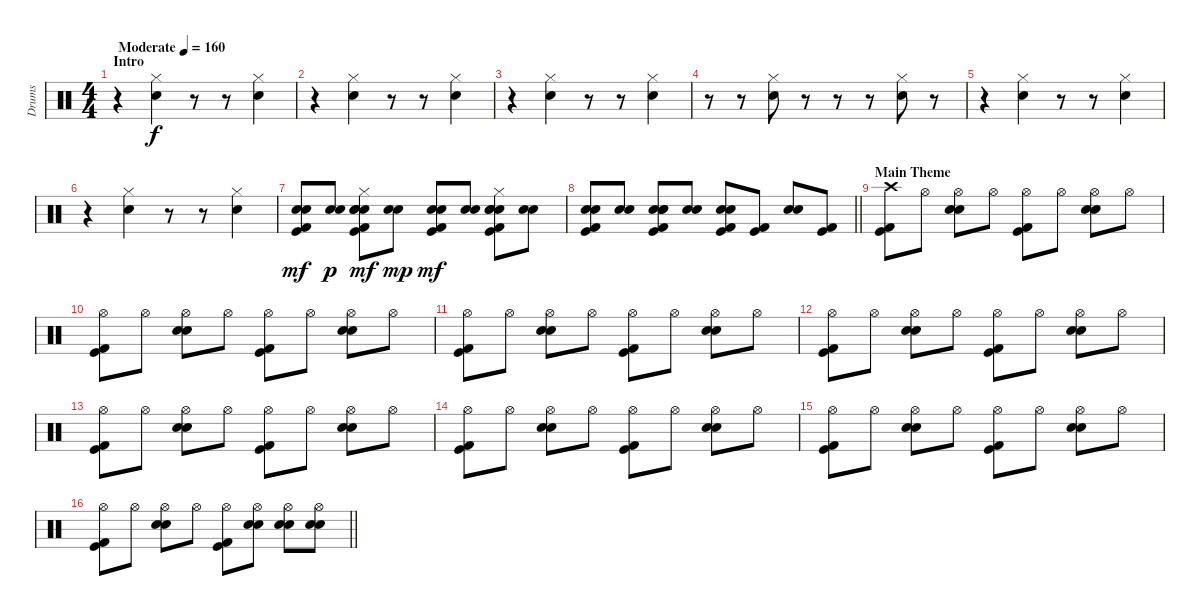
\track ("Drums" "Drums") {instrument percussion}
\staff {score}
\articulation defaults
\ts (4 4)
\section ("" "Intro")
\tempo (160 "Moderate")
\clef neutral
\ks c
r.4{dy f} ("Hi-Hat (closed)" "Hand Clap (hit)").4 r.8 r.8 ("Hi-Hat (closed)" "Hand Clap (hit)").4 |
r.4 ("Hi-Hat (closed)" "Hand Clap (hit)").4 r.8 r.8 ("Hi-Hat (closed)" "Hand Clap (hit)").4 |
r.4 ("Hi-Hat (closed)" "Hand Clap (hit)").4 r.8 r.8 ("Hi-Hat (closed)" "Hand Clap (hit)").4 |
r.8 r.8 ("Hi-Hat (closed)" "Hand Clap (hit)").8 r.8 r.8 r.8 ("Hi-Hat (closed)" "Hand Clap (hit)").8 r.8 |
r.4 ("Hi-Hat (closed)" "Hand Clap (hit)").4 r.8 r.8 ("Hi-Hat (closed)" "Hand Clap (hit)").4 |
r.4 ("Hi-Hat (closed)" "Hand Clap (hit)").4 r.8 r.8 ("Hi-Hat (closed)" "Hand Clap (hit)").4 |
("Kick (hit) 2" "Snare (hit) 2" "Electric Snare (hit)" "Kick (hit)").8{dy mf} ("Snare (hit) 2" "Electric Snare (hit)").8{dy p} ("Kick (hit) 2" "Hand Clap (hit)" "Hi-Hat (closed)" "Snare (hit) 2" "Electric Snare (hit)" "Kick (hit)").8{dy mf} ("Snare (hit) 2" "Electric Snare (hit)").8{dy mp} ("Kick (hit) 2" "Snare (hit) 2" "Electric Snare (hit)" "Kick (hit)").8{dy mf} ("Snare (hit) 2" "Electric Snare (hit)").8 ("Kick (hit) 2" "Hand Clap (hit)" "Hi-Hat (closed)" "Snare (hit) 2" "Electric Snare (hit)" "Kick (hit)").8 ("Snare (hit) 2" "Electric Snare (hit)").8 |
\barLineRight lightlight
("Kick (hit) 2" "Snare (hit) 2" "Electric Snare (hit)" "Kick (hit)").8 ("Snare (hit) 2" "Electric Snare (hit)").8 ("Kick (hit) 2" "Hand Clap (hit)" "Snare (hit) 2" "Electric Snare (hit)" "Kick (hit)").8 ("Snare (hit) 2" "Electric Snare (hit)").8 ("Kick (hit) 2" "Snare (hit) 2" "Electric Snare (hit)" "Kick (hit)").8 ("Kick (hit) 2" "Kick (hit)").8 ("Snare (hit) 2" "Electric Snare (hit)").8 ("Kick (hit) 2" "Kick (hit)").8 |
\section ("" "Main Theme")
("Crash high (hit)" "Kick (hit) 2" "Kick (hit)").8 "Hi-Hat (open)".8 ("Hi-Hat (open)" "Snare (hit) 2" "Electric Snare (hit)").8 "Hi-Hat (open)".8 ("Hi-Hat (open)" "Kick (hit) 2" "Kick (hit)").8 "Hi-Hat (open)".8 ("Hi-Hat (open)" "Snare (hit) 2" "Electric Snare (hit)").8 "Hi-Hat (open)".8 |
("Hi-Hat (open)" "Kick (hit) 2" "Kick (hit)").8 "Hi-Hat (open)".8 ("Hi-Hat (open)" "Snare (hit) 2" "Electric Snare (hit)").8 "Hi-Hat (open)".8 ("Hi-Hat (open)" "Kick (hit) 2" "Kick (hit)").8 "Hi-Hat (open)".8 ("Hi-Hat (open)" "Snare (hit) 2" "Electric Snare (hit)").8 "Hi-Hat (open)".8 |
("Hi-Hat (open)" "Kick (hit) 2" "Kick (hit)").8 "Hi-Hat (open)".8 ("Hi-Hat (open)" "Snare (hit) 2" "Electric Snare (hit)").8 "Hi-Hat (open)".8 ("Hi-Hat (open)" "Kick (hit) 2" "Kick (hit)").8 "Hi-Hat (open)".8 ("Hi-Hat (open)" "Snare (hit) 2" "Electric Snare (hit)").8 "Hi-Hat (open)".8 |
("Hi-Hat (open)" "Kick (hit) 2" "Kick (hit)").8 "Hi-Hat (open)".8 ("Hi-Hat (open)" "Snare (hit) 2" "Electric Snare (hit)").8 "Hi-Hat (open)".8 ("Hi-Hat (open)" "Kick (hit) 2" "Kick (hit)").8 "Hi-Hat (open)".8 ("Hi-Hat (open)" "Snare (hit) 2" "Electric Snare (hit)").8 "Hi-Hat (open)".8 |
("Hi-Hat (open)" "Kick (hit) 2" "Kick (hit)").8 "Hi-Hat (open)".8 ("Hi-Hat (open)" "Snare (hit) 2" "Electric Snare (hit)").8 "Hi-Hat (open)".8 ("Hi-Hat (open)" "Kick (hit) 2" "Kick (hit)").8 "Hi-Hat (open)".8 ("Hi-Hat (open)" "Snare (hit) 2" "Electric Snare (hit)").8 "Hi-Hat (open)".8 |
("Hi-Hat (open)" "Kick (hit) 2" "Kick (hit)").8 "Hi-Hat (open)".8 ("Hi-Hat (open)" "Snare (hit) 2" "Electric Snare (hit)").8 "Hi-Hat (open)".8 ("Hi-Hat (open)" "Kick (hit) 2" "Kick (hit)").8 "Hi-Hat (open)".8 ("Hi-Hat (open)" "Snare (hit) 2" "Electric Snare (hit)").8 "Hi-Hat (open)".8 |
("Hi-Hat (open)" "Kick (hit) 2" "Kick (hit)").8 "Hi-Hat (open)".8 ("Hi-Hat (open)" "Snare (hit) 2" "Electric Snare (hit)").8 "Hi-Hat (open)".8 ("Hi-Hat (open)" "Kick (hit) 2" "Kick (hit)").8 "Hi-Hat (open)".8 ("Hi-Hat (open)" "Snare (hit) 2" "Electric Snare (hit)").8 "Hi-Hat (open)".8 |
\barLineRight lightlight
("Hi-Hat (open)" "Kick (hit) 2" "Kick (hit)").8 "Hi-Hat (open)".8 ("Hi-Hat (open)" "Snare (hit) 2" "Electric Snare (hit)").8 "Hi-Hat (open)".8 ("Hi-Hat (open)" "Kick (hit) 2" "Kick (hit)").8 ("Hi-Hat (open)" "Snare (hit) 2" "Electric Snare (hit)").8 ("Hi-Hat (open)" "Snare (hit) 2" "Electric Snare (hit)").8 ("Hi-Hat (open)" "Snare (hit) 2" "Electric Snare (hit)").8
